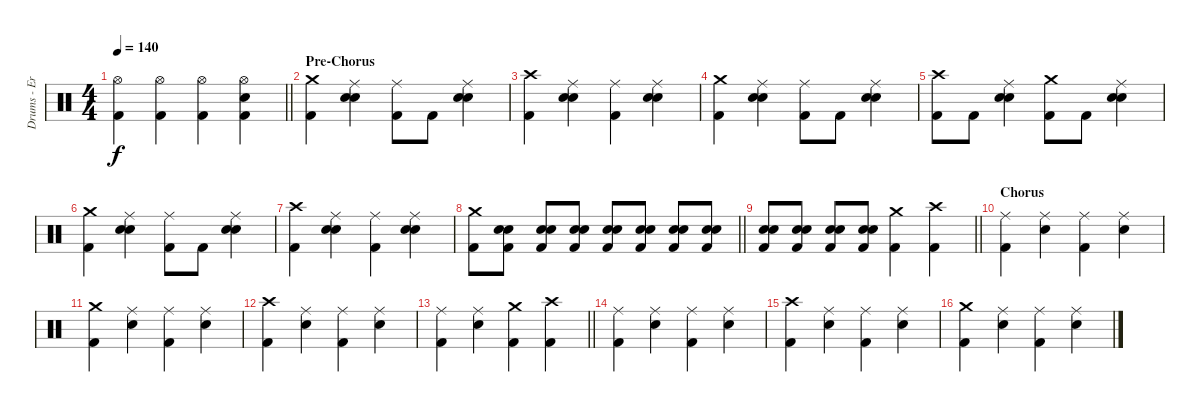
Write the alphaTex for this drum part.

\track ("Drums - Eric Young" "Drums - Er") {instrument percussion}
\staff {score}
\articulation defaults
\ts (4 4)
\tempo 140
\clef neutral
\barLineRight lightlight
\ks c
("Hi-Hat (open)" "Kick (hit) 2").4{dy f} ("Hi-Hat (open)" "Kick (hit) 2").4 ("Hi-Hat (open)" "Kick (hit) 2").4 ("Hi-Hat (open)" "Electric Snare (hit)" "Kick (hit) 2").4 |
\section ("" "Pre-Chorus")
("Crash medium (hit)" "Kick (hit) 2").4 ("Ride (middle)" "Electric Snare (hit)" "Snare (hit) 2").4 ("Ride (middle)" "Kick (hit) 2").8 "Kick (hit) 2".8 ("Ride (middle)" "Electric Snare (hit)" "Snare (hit) 2").4 |
("Crash high (hit)" "Kick (hit) 2").4 ("Ride (middle)" "Electric Snare (hit)" "Snare (hit) 2").4 ("Ride (middle)" "Kick (hit) 2").4 ("Ride (middle)" "Electric Snare (hit)" "Snare (hit) 2").4 |
("Crash medium (hit)" "Kick (hit) 2").4 ("Ride (middle)" "Electric Snare (hit)" "Snare (hit) 2").4 ("Ride (middle)" "Kick (hit) 2").8 "Kick (hit) 2".8 ("Ride (middle)" "Electric Snare (hit)" "Snare (hit) 2").4 |
("Crash high (hit)" "Kick (hit) 2").8 "Kick (hit) 2".8 ("Ride (middle)" "Electric Snare (hit)" "Snare (hit) 2").4 ("Crash medium (hit)" "Kick (hit) 2").8 "Kick (hit) 2".8 ("Ride (middle)" "Electric Snare (hit)" "Snare (hit) 2").4 |
("Crash medium (hit)" "Kick (hit) 2").4 ("Ride (middle)" "Electric Snare (hit)" "Snare (hit) 2").4 ("Ride (middle)" "Kick (hit) 2").8 "Kick (hit) 2".8 ("Ride (middle)" "Electric Snare (hit)" "Snare (hit) 2").4 |
("Crash high (hit)" "Kick (hit) 2").4 ("Ride (middle)" "Electric Snare (hit)" "Snare (hit) 2").4 ("Ride (middle)" "Kick (hit) 2").4 ("Ride (middle)" "Electric Snare (hit)" "Snare (hit) 2").4 |
\barLineRight lightlight
("Crash medium (hit)" "Kick (hit) 2").8 ("Electric Snare (hit)" "Snare (hit) 2" "Kick (hit) 2").8 ("Electric Snare (hit)" "Snare (hit) 2" "Kick (hit) 2").8 ("Electric Snare (hit)" "Snare (hit) 2" "Kick (hit) 2").8 ("Electric Snare (hit)" "Snare (hit) 2" "Kick (hit) 2").8 ("Electric Snare (hit)" "Snare (hit) 2" "Kick (hit) 2").8 ("Electric Snare (hit)" "Snare (hit) 2" "Kick (hit) 2").8 ("Electric Snare (hit)" "Snare (hit) 2" "Kick (hit) 2").8 |
\barLineRight lightlight
("Electric Snare (hit)" "Snare (hit) 2" "Kick (hit) 2").8 ("Electric Snare (hit)" "Snare (hit) 2" "Kick (hit) 2").8 ("Electric Snare (hit)" "Snare (hit) 2" "Kick (hit) 2").8 ("Electric Snare (hit)" "Snare (hit) 2" "Kick (hit) 2").8 ("Crash medium (hit)" "Kick (hit) 2").4 ("Crash high (hit)" "Kick (hit) 2").4 |
\section ("" "Chorus")
("Ride (middle)" "Kick (hit) 2").4 ("Ride (middle)" "Electric Snare (hit)").4 ("Ride (middle)" "Kick (hit) 2").4 ("Ride (middle)" "Electric Snare (hit)").4 |
("Crash medium (hit)" "Kick (hit) 2").4 ("Ride (middle)" "Electric Snare (hit)").4 ("Ride (middle)" "Kick (hit) 2").4 ("Ride (middle)" "Electric Snare (hit)").4 |
("Crash high (hit)" "Kick (hit) 2").4 ("Ride (middle)" "Electric Snare (hit)").4 ("Ride (middle)" "Kick (hit) 2").4 ("Ride (middle)" "Electric Snare (hit)").4 |
\barLineRight lightlight
("Ride (middle)" "Kick (hit) 2").4 ("Ride (middle)" "Electric Snare (hit)").4 ("Crash medium (hit)" "Kick (hit) 2").4 ("Crash high (hit)" "Kick (hit) 2").4 |
("Ride (middle)" "Kick (hit) 2").4 ("Ride (middle)" "Electric Snare (hit)").4 ("Ride (middle)" "Kick (hit) 2").4 ("Ride (middle)" "Electric Snare (hit)").4 |
("Crash high (hit)" "Kick (hit) 2").4 ("Ride (middle)" "Electric Snare (hit)").4 ("Ride (middle)" "Kick (hit) 2").4 ("Ride (middle)" "Electric Snare (hit)").4 |
("Crash medium (hit)" "Kick (hit) 2").4 ("Ride (middle)" "Electric Snare (hit)").4 ("Ride (middle)" "Kick (hit) 2").4 ("Ride (middle)" "Electric Snare (hit)").4
